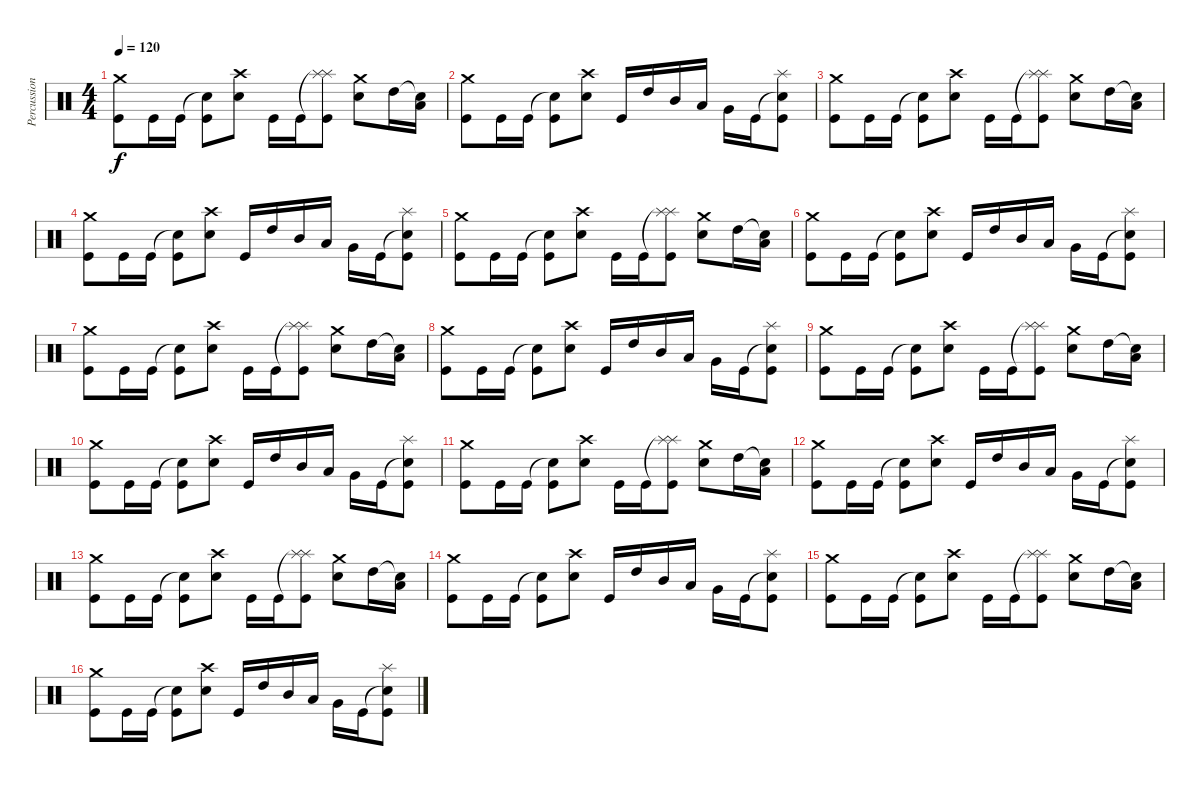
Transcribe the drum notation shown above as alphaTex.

\track ("Percussion" "Percussion") {instrument percussion}
\staff {score}
\articulation defaults
\ts (4 4)
\tempo 120
\clef neutral
\ks c
("Crash medium (hit)" "Kick (hit)").8{dy f} "Kick (hit)".16 "Kick (hit)".16 ("Snare (hit)"{t} "Kick (hit)").8 ("Crash high (hit)" "Electric Snare (hit)").8 "Kick (hit)".16 "Kick (hit)".16 ("Splash (hit)"{t} "Splash (hit)" "Kick (hit)").8 ("Crash medium (hit)" "Electric Snare (hit)").8 "High Tom (hit)".16 ("Snare (hit)"{t} "Low Tom (hit)").16 |
("Crash medium (hit)" "Kick (hit)").8 "Kick (hit)".16 "Kick (hit)".16 ("Snare (hit)"{t} "Kick (hit)").8 ("Crash high (hit)" "Electric Snare (hit)").8 "Kick (hit)".16 "High Tom (hit)".16 "Mid Tom (hit)".16 "Low Tom (hit)".16 "Very Low Tom (hit)".16 "Kick (hit)".16 ("Snare (hit)"{t} "Splash (hit)" "Kick (hit)").8 |
("Crash medium (hit)" "Kick (hit)").8 "Kick (hit)".16 "Kick (hit)".16 ("Snare (hit)"{t} "Kick (hit)").8 ("Crash high (hit)" "Electric Snare (hit)").8 "Kick (hit)".16 "Kick (hit)".16 ("Splash (hit)"{t} "Splash (hit)" "Kick (hit)").8 ("Crash medium (hit)" "Electric Snare (hit)").8 "High Tom (hit)".16 ("Snare (hit)"{t} "Low Tom (hit)").16 |
("Crash medium (hit)" "Kick (hit)").8 "Kick (hit)".16 "Kick (hit)".16 ("Snare (hit)"{t} "Kick (hit)").8 ("Crash high (hit)" "Electric Snare (hit)").8 "Kick (hit)".16 "High Tom (hit)".16 "Mid Tom (hit)".16 "Low Tom (hit)".16 "Very Low Tom (hit)".16 "Kick (hit)".16 ("Snare (hit)"{t} "Splash (hit)" "Kick (hit)").8 |
("Crash medium (hit)" "Kick (hit)").8 "Kick (hit)".16 "Kick (hit)".16 ("Snare (hit)"{t} "Kick (hit)").8 ("Crash high (hit)" "Electric Snare (hit)").8 "Kick (hit)".16 "Kick (hit)".16 ("Splash (hit)"{t} "Splash (hit)" "Kick (hit)").8 ("Crash medium (hit)" "Electric Snare (hit)").8 "High Tom (hit)".16 ("Snare (hit)"{t} "Low Tom (hit)").16 |
("Crash medium (hit)" "Kick (hit)").8 "Kick (hit)".16 "Kick (hit)".16 ("Snare (hit)"{t} "Kick (hit)").8 ("Crash high (hit)" "Electric Snare (hit)").8 "Kick (hit)".16 "High Tom (hit)".16 "Mid Tom (hit)".16 "Low Tom (hit)".16 "Very Low Tom (hit)".16 "Kick (hit)".16 ("Snare (hit)"{t} "Splash (hit)" "Kick (hit)").8 |
("Crash medium (hit)" "Kick (hit)").8 "Kick (hit)".16 "Kick (hit)".16 ("Snare (hit)"{t} "Kick (hit)").8 ("Crash high (hit)" "Electric Snare (hit)").8 "Kick (hit)".16 "Kick (hit)".16 ("Splash (hit)"{t} "Splash (hit)" "Kick (hit)").8 ("Crash medium (hit)" "Electric Snare (hit)").8 "High Tom (hit)".16 ("Snare (hit)"{t} "Low Tom (hit)").16 |
("Crash medium (hit)" "Kick (hit)").8 "Kick (hit)".16 "Kick (hit)".16 ("Snare (hit)"{t} "Kick (hit)").8 ("Crash high (hit)" "Electric Snare (hit)").8 "Kick (hit)".16 "High Tom (hit)".16 "Mid Tom (hit)".16 "Low Tom (hit)".16 "Very Low Tom (hit)".16 "Kick (hit)".16 ("Snare (hit)"{t} "Splash (hit)" "Kick (hit)").8 |
("Crash medium (hit)" "Kick (hit)").8 "Kick (hit)".16 "Kick (hit)".16 ("Snare (hit)"{t} "Kick (hit)").8 ("Crash high (hit)" "Electric Snare (hit)").8 "Kick (hit)".16 "Kick (hit)".16 ("Splash (hit)"{t} "Splash (hit)" "Kick (hit)").8 ("Crash medium (hit)" "Electric Snare (hit)").8 "High Tom (hit)".16 ("Snare (hit)"{t} "Low Tom (hit)").16 |
("Crash medium (hit)" "Kick (hit)").8 "Kick (hit)".16 "Kick (hit)".16 ("Snare (hit)"{t} "Kick (hit)").8 ("Crash high (hit)" "Electric Snare (hit)").8 "Kick (hit)".16 "High Tom (hit)".16 "Mid Tom (hit)".16 "Low Tom (hit)".16 "Very Low Tom (hit)".16 "Kick (hit)".16 ("Snare (hit)"{t} "Splash (hit)" "Kick (hit)").8 |
("Crash medium (hit)" "Kick (hit)").8 "Kick (hit)".16 "Kick (hit)".16 ("Snare (hit)"{t} "Kick (hit)").8 ("Crash high (hit)" "Electric Snare (hit)").8 "Kick (hit)".16 "Kick (hit)".16 ("Splash (hit)"{t} "Splash (hit)" "Kick (hit)").8 ("Crash medium (hit)" "Electric Snare (hit)").8 "High Tom (hit)".16 ("Snare (hit)"{t} "Low Tom (hit)").16 |
("Crash medium (hit)" "Kick (hit)").8 "Kick (hit)".16 "Kick (hit)".16 ("Snare (hit)"{t} "Kick (hit)").8 ("Crash high (hit)" "Electric Snare (hit)").8 "Kick (hit)".16 "High Tom (hit)".16 "Mid Tom (hit)".16 "Low Tom (hit)".16 "Very Low Tom (hit)".16 "Kick (hit)".16 ("Snare (hit)"{t} "Splash (hit)" "Kick (hit)").8 |
("Crash medium (hit)" "Kick (hit)").8 "Kick (hit)".16 "Kick (hit)".16 ("Snare (hit)"{t} "Kick (hit)").8 ("Crash high (hit)" "Electric Snare (hit)").8 "Kick (hit)".16 "Kick (hit)".16 ("Splash (hit)"{t} "Splash (hit)" "Kick (hit)").8 ("Crash medium (hit)" "Electric Snare (hit)").8 "High Tom (hit)".16 ("Snare (hit)"{t} "Low Tom (hit)").16 |
("Crash medium (hit)" "Kick (hit)").8 "Kick (hit)".16 "Kick (hit)".16 ("Snare (hit)"{t} "Kick (hit)").8 ("Crash high (hit)" "Electric Snare (hit)").8 "Kick (hit)".16 "High Tom (hit)".16 "Mid Tom (hit)".16 "Low Tom (hit)".16 "Very Low Tom (hit)".16 "Kick (hit)".16 ("Snare (hit)"{t} "Splash (hit)" "Kick (hit)").8 |
("Crash medium (hit)" "Kick (hit)").8 "Kick (hit)".16 "Kick (hit)".16 ("Snare (hit)"{t} "Kick (hit)").8 ("Crash high (hit)" "Electric Snare (hit)").8 "Kick (hit)".16 "Kick (hit)".16 ("Splash (hit)"{t} "Splash (hit)" "Kick (hit)").8 ("Crash medium (hit)" "Electric Snare (hit)").8 "High Tom (hit)".16 ("Snare (hit)"{t} "Low Tom (hit)").16 |
("Crash medium (hit)" "Kick (hit)").8 "Kick (hit)".16 "Kick (hit)".16 ("Snare (hit)"{t} "Kick (hit)").8 ("Crash high (hit)" "Electric Snare (hit)").8 "Kick (hit)".16 "High Tom (hit)".16 "Mid Tom (hit)".16 "Low Tom (hit)".16 "Very Low Tom (hit)".16 "Kick (hit)".16 ("Snare (hit)"{t} "Splash (hit)" "Kick (hit)").8
